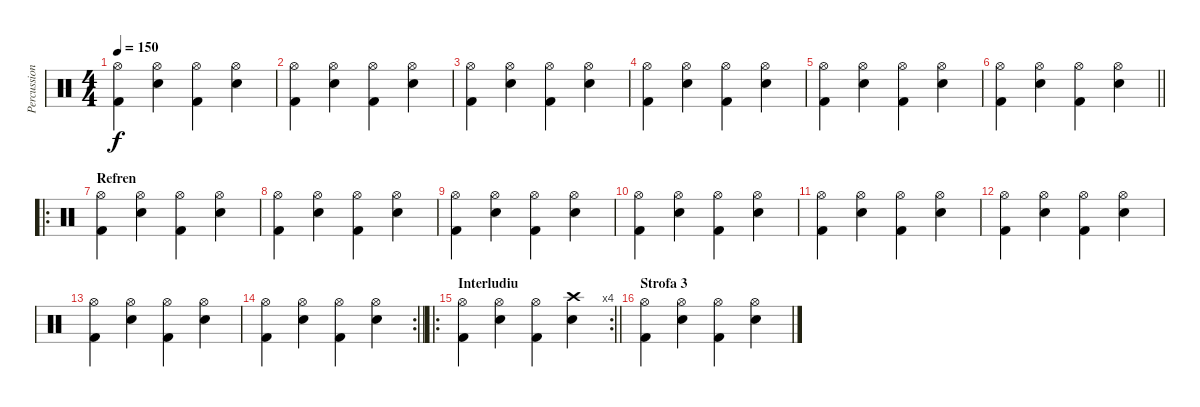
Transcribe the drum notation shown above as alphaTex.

\track ("Percussion" "Percussion") {instrument percussion}
\staff {score}
\articulation defaults
\ts (4 4)
\tempo 150
\clef neutral
\ks c
("Hi-Hat (open)" "Kick (hit) 2").4{dy f} ("Hi-Hat (open)" "Snare (hit) 2").4 ("Hi-Hat (open)" "Kick (hit) 2").4 ("Hi-Hat (open)" "Snare (hit) 2").4 |
("Hi-Hat (open)" "Kick (hit) 2").4 ("Hi-Hat (open)" "Snare (hit) 2").4 ("Hi-Hat (open)" "Kick (hit) 2").4 ("Hi-Hat (open)" "Snare (hit) 2").4 |
("Hi-Hat (open)" "Kick (hit) 2").4 ("Hi-Hat (open)" "Snare (hit) 2").4 ("Hi-Hat (open)" "Kick (hit) 2").4 ("Hi-Hat (open)" "Snare (hit) 2").4 |
("Hi-Hat (open)" "Kick (hit) 2").4 ("Hi-Hat (open)" "Snare (hit) 2").4 ("Hi-Hat (open)" "Kick (hit) 2").4 ("Hi-Hat (open)" "Snare (hit) 2").4 |
("Hi-Hat (open)" "Kick (hit) 2").4 ("Hi-Hat (open)" "Snare (hit) 2").4 ("Hi-Hat (open)" "Kick (hit) 2").4 ("Hi-Hat (open)" "Snare (hit) 2").4 |
\barLineRight lightlight
("Hi-Hat (open)" "Kick (hit) 2").4 ("Hi-Hat (open)" "Snare (hit) 2").4 ("Hi-Hat (open)" "Kick (hit) 2").4 ("Hi-Hat (open)" "Snare (hit) 2").4 |
\ro
\section ("" "Refren")
("Hi-Hat (open)" "Kick (hit) 2").4 ("Hi-Hat (open)" "Snare (hit) 2").4 ("Hi-Hat (open)" "Kick (hit) 2").4 ("Hi-Hat (open)" "Snare (hit) 2").4 |
("Hi-Hat (open)" "Kick (hit) 2").4 ("Hi-Hat (open)" "Snare (hit) 2").4 ("Hi-Hat (open)" "Kick (hit) 2").4 ("Hi-Hat (open)" "Snare (hit) 2").4 |
("Hi-Hat (open)" "Kick (hit) 2").4 ("Hi-Hat (open)" "Snare (hit) 2").4 ("Hi-Hat (open)" "Kick (hit) 2").4 ("Hi-Hat (open)" "Snare (hit) 2").4 |
("Hi-Hat (open)" "Kick (hit) 2").4 ("Hi-Hat (open)" "Snare (hit) 2").4 ("Hi-Hat (open)" "Kick (hit) 2").4 ("Hi-Hat (open)" "Snare (hit) 2").4 |
("Hi-Hat (open)" "Kick (hit) 2").4 ("Hi-Hat (open)" "Snare (hit) 2").4 ("Hi-Hat (open)" "Kick (hit) 2").4 ("Hi-Hat (open)" "Snare (hit) 2").4 |
("Hi-Hat (open)" "Kick (hit) 2").4 ("Hi-Hat (open)" "Snare (hit) 2").4 ("Hi-Hat (open)" "Kick (hit) 2").4 ("Hi-Hat (open)" "Snare (hit) 2").4 |
("Hi-Hat (open)" "Kick (hit) 2").4 ("Hi-Hat (open)" "Snare (hit) 2").4 ("Hi-Hat (open)" "Kick (hit) 2").4 ("Hi-Hat (open)" "Snare (hit) 2").4 |
\rc 2
\barLineRight lightlight
("Hi-Hat (open)" "Kick (hit) 2").4 ("Hi-Hat (open)" "Snare (hit) 2").4 ("Hi-Hat (open)" "Kick (hit) 2").4 ("Hi-Hat (open)" "Snare (hit) 2").4 |
\ro
\rc 4
\section ("" "Interludiu")
\barLineRight lightlight
("Hi-Hat (open)" "Kick (hit) 2").4 ("Hi-Hat (open)" "Snare (hit) 2").4 ("Hi-Hat (open)" "Kick (hit) 2").4 ("Crash high (hit)" "Snare (hit) 2").4 |
\section ("" "Strofa 3")
("Hi-Hat (open)" "Kick (hit) 2").4 ("Hi-Hat (open)" "Snare (hit) 2").4 ("Hi-Hat (open)" "Kick (hit) 2").4 ("Hi-Hat (open)" "Snare (hit) 2").4
